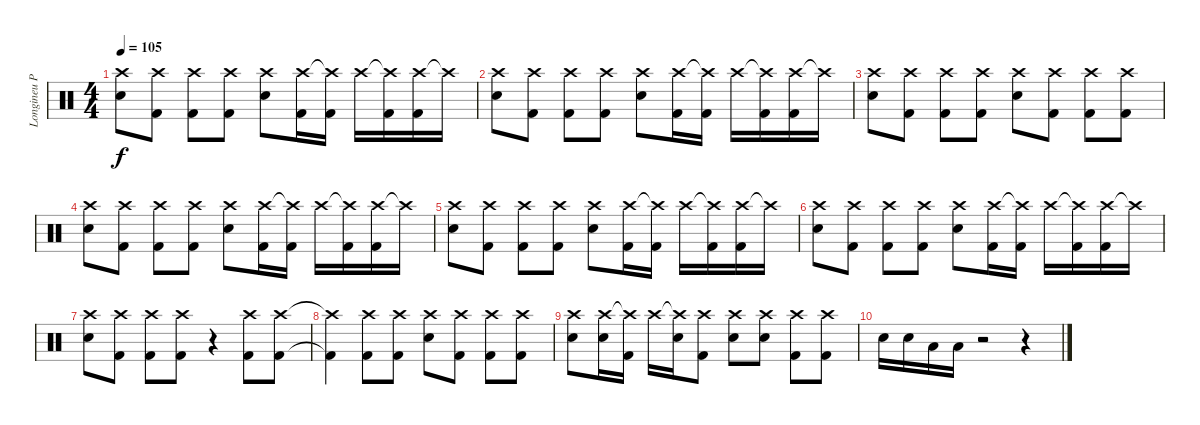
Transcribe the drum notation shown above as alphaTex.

\track ("Longineu Parsons III" "Longineu P") {instrument percussion}
\staff {score}
\articulation defaults
\ts (4 4)
\tempo 105
\clef neutral
\ks c
("Crash high (hit)" "Electric Snare (hit)").8{dy f} ("Crash high (hit)" "Kick (hit) 2").8 ("Crash high (hit)" "Kick (hit) 2").8 ("Crash high (hit)" "Kick (hit) 2").8 ("Crash high (hit)" "Electric Snare (hit)").8 ("Crash high (hit)" "Kick (hit) 2").16 ("Crash high (hit)"{t} "Kick (hit) 2").16 "Crash high (hit)".16 ("Crash high (hit)"{t} "Kick (hit) 2").16 ("Crash high (hit)" "Kick (hit) 2").16 "Crash high (hit)"{t}.16 |
("Crash high (hit)" "Electric Snare (hit)").8 ("Crash high (hit)" "Kick (hit) 2").8 ("Crash high (hit)" "Kick (hit) 2").8 ("Crash high (hit)" "Kick (hit) 2").8 ("Crash high (hit)" "Electric Snare (hit)").8 ("Crash high (hit)" "Kick (hit) 2").16 ("Crash high (hit)"{t} "Kick (hit) 2").16 "Crash high (hit)".16 ("Crash high (hit)"{t} "Kick (hit) 2").16 ("Crash high (hit)" "Kick (hit) 2").16 "Crash high (hit)"{t}.16 |
("Crash high (hit)" "Electric Snare (hit)").8 ("Crash high (hit)" "Kick (hit) 2").8 ("Crash high (hit)" "Kick (hit) 2").8 ("Crash high (hit)" "Kick (hit) 2").8 ("Crash high (hit)" "Electric Snare (hit)").8 ("Crash high (hit)" "Kick (hit) 2").8 ("Crash high (hit)" "Kick (hit) 2").8 ("Crash high (hit)" "Kick (hit) 2").8 |
("Crash high (hit)" "Electric Snare (hit)").8 ("Crash high (hit)" "Kick (hit) 2").8 ("Crash high (hit)" "Kick (hit) 2").8 ("Crash high (hit)" "Kick (hit) 2").8 ("Crash high (hit)" "Electric Snare (hit)").8 ("Crash high (hit)" "Kick (hit) 2").16 ("Crash high (hit)"{t} "Kick (hit) 2").16 "Crash high (hit)".16 ("Crash high (hit)"{t} "Kick (hit) 2").16 ("Crash high (hit)" "Kick (hit) 2").16 "Crash high (hit)"{t}.16 |
("Crash high (hit)" "Electric Snare (hit)").8 ("Crash high (hit)" "Kick (hit) 2").8 ("Crash high (hit)" "Kick (hit) 2").8 ("Crash high (hit)" "Kick (hit) 2").8 ("Crash high (hit)" "Electric Snare (hit)").8 ("Crash high (hit)" "Kick (hit) 2").16 ("Crash high (hit)"{t} "Kick (hit) 2").16 "Crash high (hit)".16 ("Crash high (hit)"{t} "Kick (hit) 2").16 ("Crash high (hit)" "Kick (hit) 2").16 "Crash high (hit)"{t}.16 |
("Crash high (hit)" "Electric Snare (hit)").8 ("Crash high (hit)" "Kick (hit) 2").8 ("Crash high (hit)" "Kick (hit) 2").8 ("Crash high (hit)" "Kick (hit) 2").8 ("Crash high (hit)" "Electric Snare (hit)").8 ("Crash high (hit)" "Kick (hit) 2").16 ("Crash high (hit)"{t} "Kick (hit) 2").16 "Crash high (hit)".16 ("Crash high (hit)"{t} "Kick (hit) 2").16 ("Crash high (hit)" "Kick (hit) 2").16 "Crash high (hit)"{t}.16 |
("Crash high (hit)" "Electric Snare (hit)").8 ("Crash high (hit)" "Kick (hit) 2").8 ("Crash high (hit)" "Kick (hit) 2").8 ("Crash high (hit)" "Kick (hit) 2").8 r.4 ("Crash high (hit)" "Kick (hit) 2").8 ("Crash high (hit)" "Kick (hit) 2").8 |
("Crash high (hit)"{t} "Kick (hit) 2"{t}).4 ("Crash high (hit)" "Kick (hit) 2").8 ("Crash high (hit)" "Kick (hit) 2").8 ("Crash high (hit)" "Electric Snare (hit)").8 ("Crash high (hit)" "Kick (hit) 2").8 ("Crash high (hit)" "Kick (hit) 2").8 ("Crash high (hit)" "Kick (hit) 2").8 |
("Crash high (hit)" "Electric Snare (hit)").8 ("Crash high (hit)" "Electric Snare (hit)").16 ("Crash high (hit)"{t} "Kick (hit) 2").16 "Crash high (hit)".16 ("Crash high (hit)"{t} "Electric Snare (hit)").16 ("Crash high (hit)" "Kick (hit) 2").8 ("Crash high (hit)" "Electric Snare (hit)").8 ("Crash high (hit)" "Electric Snare (hit)").8 ("Crash high (hit)" "Kick (hit) 2").8 ("Crash high (hit)" "Kick (hit) 2").8 |
"Electric Snare (hit)".16 "Electric Snare (hit)".16 "Low Tom (hit)".16 "Low Tom (hit)".16 r.2 r.4
